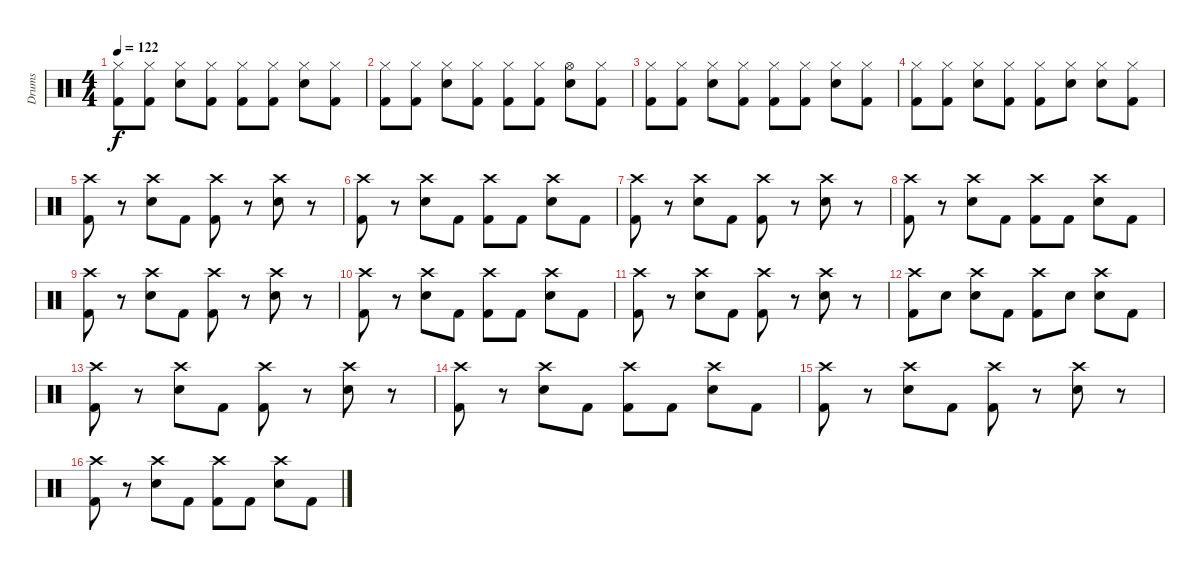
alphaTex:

\track ("Drums" "Drums") {instrument percussion}
\staff {score}
\articulation defaults
\ts (4 4)
\tempo 122
\clef neutral
\ks c
("Hi-Hat (closed)" "Kick (hit) 2").8{dy f} ("Hi-Hat (closed)" "Kick (hit) 2").8 ("Hi-Hat (closed)" "Electric Snare (hit)").8 ("Hi-Hat (closed)" "Kick (hit) 2").8 ("Hi-Hat (closed)" "Kick (hit) 2").8 ("Hi-Hat (closed)" "Kick (hit) 2").8 ("Hi-Hat (closed)" "Electric Snare (hit)").8 ("Hi-Hat (closed)" "Kick (hit) 2").8 |
("Hi-Hat (closed)" "Kick (hit) 2").8 ("Hi-Hat (closed)" "Kick (hit) 2").8 ("Hi-Hat (closed)" "Electric Snare (hit)").8 ("Hi-Hat (closed)" "Kick (hit) 2").8 ("Hi-Hat (closed)" "Kick (hit) 2").8 ("Hi-Hat (closed)" "Kick (hit) 2").8 ("Hi-Hat (open)" "Electric Snare (hit)").8 ("Hi-Hat (closed)" "Kick (hit) 2").8 |
("Hi-Hat (closed)" "Kick (hit) 2").8 ("Hi-Hat (closed)" "Kick (hit) 2").8 ("Hi-Hat (closed)" "Electric Snare (hit)").8 ("Hi-Hat (closed)" "Kick (hit) 2").8 ("Hi-Hat (closed)" "Kick (hit) 2").8 ("Hi-Hat (closed)" "Kick (hit) 2").8 ("Hi-Hat (closed)" "Electric Snare (hit)").8 ("Hi-Hat (closed)" "Kick (hit) 2").8 |
("Hi-Hat (closed)" "Kick (hit) 2").8 ("Hi-Hat (closed)" "Kick (hit) 2").8 ("Hi-Hat (closed)" "Electric Snare (hit)").8 ("Hi-Hat (closed)" "Kick (hit) 2").8 ("Hi-Hat (closed)" "Kick (hit) 2").8 ("Hi-Hat (closed)" "Electric Snare (hit)").8 ("Hi-Hat (closed)" "Electric Snare (hit)").8 ("Hi-Hat (closed)" "Kick (hit) 2").8 |
("Crash high (hit)" "Kick (hit) 2").8 r.8 ("Crash high (hit)" "Electric Snare (hit)").8 "Kick (hit) 2".8 ("Crash high (hit)" "Kick (hit) 2").8 r.8 ("Crash high (hit)" "Electric Snare (hit)").8 r.8 |
("Crash high (hit)" "Kick (hit) 2").8 r.8 ("Crash high (hit)" "Electric Snare (hit)").8 "Kick (hit) 2".8 ("Crash high (hit)" "Kick (hit) 2").8 "Kick (hit) 2".8 ("Crash high (hit)" "Electric Snare (hit)").8 "Kick (hit) 2".8 |
("Crash high (hit)" "Kick (hit) 2").8 r.8 ("Crash high (hit)" "Electric Snare (hit)").8 "Kick (hit) 2".8 ("Crash high (hit)" "Kick (hit) 2").8 r.8 ("Crash high (hit)" "Electric Snare (hit)").8 r.8 |
("Crash high (hit)" "Kick (hit) 2").8 r.8 ("Crash high (hit)" "Electric Snare (hit)").8 "Kick (hit) 2".8 ("Crash high (hit)" "Kick (hit) 2").8 "Kick (hit) 2".8 ("Crash high (hit)" "Electric Snare (hit)").8 "Kick (hit) 2".8 |
("Crash high (hit)" "Kick (hit) 2").8 r.8 ("Crash high (hit)" "Electric Snare (hit)").8 "Kick (hit) 2".8 ("Crash high (hit)" "Kick (hit) 2").8 r.8 ("Crash high (hit)" "Electric Snare (hit)").8 r.8 |
("Crash high (hit)" "Kick (hit) 2").8 r.8 ("Crash high (hit)" "Electric Snare (hit)").8 "Kick (hit) 2".8 ("Crash high (hit)" "Kick (hit) 2").8 "Kick (hit) 2".8 ("Crash high (hit)" "Electric Snare (hit)").8 "Kick (hit) 2".8 |
("Crash high (hit)" "Kick (hit) 2").8 r.8 ("Crash high (hit)" "Electric Snare (hit)").8 "Kick (hit) 2".8 ("Crash high (hit)" "Kick (hit) 2").8 r.8 ("Crash high (hit)" "Electric Snare (hit)").8 r.8 |
("Crash high (hit)" "Kick (hit) 2").8 "Electric Snare (hit)".8 ("Crash high (hit)" "Electric Snare (hit)").8 "Kick (hit) 2".8 ("Crash high (hit)" "Kick (hit) 2").8 "Electric Snare (hit)".8 ("Crash high (hit)" "Electric Snare (hit)").8 "Kick (hit) 2".8 |
("Crash high (hit)" "Kick (hit) 2").8 r.8 ("Crash high (hit)" "Electric Snare (hit)").8 "Kick (hit) 2".8 ("Crash high (hit)" "Kick (hit) 2").8 r.8 ("Crash high (hit)" "Electric Snare (hit)").8 r.8 |
("Crash high (hit)" "Kick (hit) 2").8 r.8 ("Crash high (hit)" "Electric Snare (hit)").8 "Kick (hit) 2".8 ("Crash high (hit)" "Kick (hit) 2").8 "Kick (hit) 2".8 ("Crash high (hit)" "Electric Snare (hit)").8 "Kick (hit) 2".8 |
("Crash high (hit)" "Kick (hit) 2").8 r.8 ("Crash high (hit)" "Electric Snare (hit)").8 "Kick (hit) 2".8 ("Crash high (hit)" "Kick (hit) 2").8 r.8 ("Crash high (hit)" "Electric Snare (hit)").8 r.8 |
("Crash high (hit)" "Kick (hit) 2").8 r.8 ("Crash high (hit)" "Electric Snare (hit)").8 "Kick (hit) 2".8 ("Crash high (hit)" "Kick (hit) 2").8 "Kick (hit) 2".8 ("Crash high (hit)" "Electric Snare (hit)").8 "Kick (hit) 2".8
